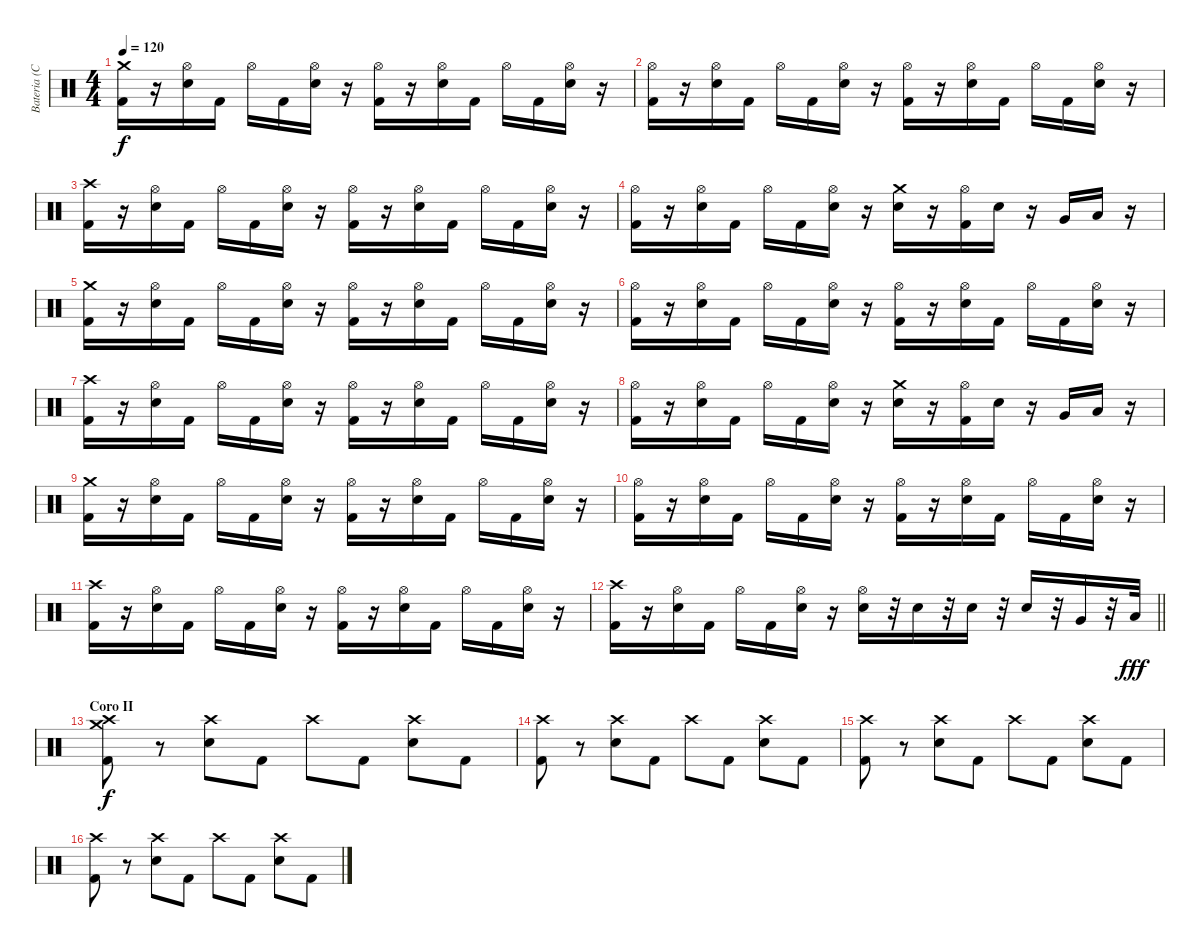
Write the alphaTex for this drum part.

\track ("Bateria (Ciro)" "Bateria (C") {instrument percussion}
\staff {score}
\articulation defaults
\ts (4 4)
\tempo 120
\clef neutral
\ks c
("Crash medium (hit)" "Kick (hit) 2").16{dy f} r.16 ("Hi-Hat (open)" "Snare (hit) 2").16 "Kick (hit) 2".16 "Hi-Hat (open)".16 "Kick (hit) 2".16 ("Hi-Hat (open)" "Snare (hit) 2").16 r.16 ("Hi-Hat (open)" "Kick (hit) 2").16 r.16 ("Hi-Hat (open)" "Snare (hit) 2").16 "Kick (hit) 2".16 "Hi-Hat (open)".16 "Kick (hit) 2".16 ("Hi-Hat (open)" "Snare (hit) 2").16 r.16 |
("Hi-Hat (open)" "Kick (hit) 2").16 r.16 ("Hi-Hat (open)" "Snare (hit) 2").16 "Kick (hit) 2".16 "Hi-Hat (open)".16 "Kick (hit) 2".16 ("Hi-Hat (open)" "Snare (hit) 2").16 r.16 ("Hi-Hat (open)" "Kick (hit) 2").16 r.16 ("Hi-Hat (open)" "Snare (hit) 2").16 "Kick (hit) 2".16 "Hi-Hat (open)".16 "Kick (hit) 2".16 ("Hi-Hat (open)" "Snare (hit) 2").16 r.16 |
("Crash high (hit)" "Kick (hit) 2").16 r.16 ("Hi-Hat (open)" "Snare (hit) 2").16 "Kick (hit) 2".16 "Hi-Hat (open)".16 "Kick (hit) 2".16 ("Hi-Hat (open)" "Snare (hit) 2").16 r.16 ("Hi-Hat (open)" "Kick (hit) 2").16 r.16 ("Hi-Hat (open)" "Snare (hit) 2").16 "Kick (hit) 2".16 "Hi-Hat (open)".16 "Kick (hit) 2".16 ("Hi-Hat (open)" "Snare (hit) 2").16 r.16 |
("Hi-Hat (open)" "Kick (hit) 2").16 r.16 ("Hi-Hat (open)" "Snare (hit) 2").16 "Kick (hit) 2".16 "Hi-Hat (open)".16 "Kick (hit) 2".16 ("Hi-Hat (open)" "Snare (hit) 2").16 r.16 ("Crash medium (hit)" "Snare (hit) 2").16 r.16 ("Hi-Hat (open)" "Kick (hit) 2").16 "Snare (hit) 2".16 r.16 "Very Low Tom (hit)".16 "Low Floor Tom (hit)".16 r.16 |
("Crash medium (hit)" "Kick (hit) 2").16 r.16 ("Hi-Hat (open)" "Snare (hit) 2").16 "Kick (hit) 2".16 "Hi-Hat (open)".16 "Kick (hit) 2".16 ("Hi-Hat (open)" "Snare (hit) 2").16 r.16 ("Hi-Hat (open)" "Kick (hit) 2").16 r.16 ("Hi-Hat (open)" "Snare (hit) 2").16 "Kick (hit) 2".16 "Hi-Hat (open)".16 "Kick (hit) 2".16 ("Hi-Hat (open)" "Snare (hit) 2").16 r.16 |
("Hi-Hat (open)" "Kick (hit) 2").16 r.16 ("Hi-Hat (open)" "Snare (hit) 2").16 "Kick (hit) 2".16 "Hi-Hat (open)".16 "Kick (hit) 2".16 ("Hi-Hat (open)" "Snare (hit) 2").16 r.16 ("Hi-Hat (open)" "Kick (hit) 2").16 r.16 ("Hi-Hat (open)" "Snare (hit) 2").16 "Kick (hit) 2".16 "Hi-Hat (open)".16 "Kick (hit) 2".16 ("Hi-Hat (open)" "Snare (hit) 2").16 r.16 |
("Crash high (hit)" "Kick (hit) 2").16 r.16 ("Hi-Hat (open)" "Snare (hit) 2").16 "Kick (hit) 2".16 "Hi-Hat (open)".16 "Kick (hit) 2".16 ("Hi-Hat (open)" "Snare (hit) 2").16 r.16 ("Hi-Hat (open)" "Kick (hit) 2").16 r.16 ("Hi-Hat (open)" "Snare (hit) 2").16 "Kick (hit) 2".16 "Hi-Hat (open)".16 "Kick (hit) 2".16 ("Hi-Hat (open)" "Snare (hit) 2").16 r.16 |
("Hi-Hat (open)" "Kick (hit) 2").16 r.16 ("Hi-Hat (open)" "Snare (hit) 2").16 "Kick (hit) 2".16 "Hi-Hat (open)".16 "Kick (hit) 2".16 ("Hi-Hat (open)" "Snare (hit) 2").16 r.16 ("Crash medium (hit)" "Snare (hit) 2").16 r.16 ("Hi-Hat (open)" "Kick (hit) 2").16 "Snare (hit) 2".16 r.16 "Very Low Tom (hit)".16 "Low Floor Tom (hit)".16 r.16 |
("Crash medium (hit)" "Kick (hit) 2").16 r.16 ("Hi-Hat (open)" "Snare (hit) 2").16 "Kick (hit) 2".16 "Hi-Hat (open)".16 "Kick (hit) 2".16 ("Hi-Hat (open)" "Snare (hit) 2").16 r.16 ("Hi-Hat (open)" "Kick (hit) 2").16 r.16 ("Hi-Hat (open)" "Snare (hit) 2").16 "Kick (hit) 2".16 "Hi-Hat (open)".16 "Kick (hit) 2".16 ("Hi-Hat (open)" "Snare (hit) 2").16 r.16 |
("Hi-Hat (open)" "Kick (hit) 2").16 r.16 ("Hi-Hat (open)" "Snare (hit) 2").16 "Kick (hit) 2".16 "Hi-Hat (open)".16 "Kick (hit) 2".16 ("Hi-Hat (open)" "Snare (hit) 2").16 r.16 ("Hi-Hat (open)" "Kick (hit) 2").16 r.16 ("Hi-Hat (open)" "Snare (hit) 2").16 "Kick (hit) 2".16 "Hi-Hat (open)".16 "Kick (hit) 2".16 ("Hi-Hat (open)" "Snare (hit) 2").16 r.16 |
("Crash high (hit)" "Kick (hit) 2").16 r.16 ("Hi-Hat (open)" "Snare (hit) 2").16 "Kick (hit) 2".16 "Hi-Hat (open)".16 "Kick (hit) 2".16 ("Hi-Hat (open)" "Snare (hit) 2").16 r.16 ("Hi-Hat (open)" "Kick (hit) 2").16 r.16 ("Hi-Hat (open)" "Snare (hit) 2").16 "Kick (hit) 2".16 "Hi-Hat (open)".16 "Kick (hit) 2".16 ("Hi-Hat (open)" "Snare (hit) 2").16 r.16 |
\barLineRight lightlight
("Crash high (hit)" "Kick (hit) 2").16 r.16 ("Hi-Hat (open)" "Snare (hit) 2").16 "Kick (hit) 2".16 "Hi-Hat (open)".16 "Kick (hit) 2".16 ("Hi-Hat (open)" "Snare (hit) 2").16 r.16 ("Hi-Hat (open)" "Snare (hit) 2").16 r.32 "Snare (hit) 2".16 r.32 "Snare (hit) 2".16 r.32 "Snare (hit) 2".16 r.32 "Very Low Tom (hit)".16 r.32 "Low Floor Tom (hit)".32{dy fff} |
\section ("" "Coro II")
("Crash medium (hit)" "Crash high (hit)" "Kick (hit) 2").8{dy f} r.8 ("Crash high (hit)" "Snare (hit) 2").8 "Kick (hit) 2".8 "Crash high (hit)".8 "Kick (hit) 2".8 ("Crash high (hit)" "Snare (hit) 2").8 "Kick (hit) 2".8 |
("Crash high (hit)" "Kick (hit) 2").8 r.8 ("Crash high (hit)" "Snare (hit) 2").8 "Kick (hit) 2".8 "Crash high (hit)".8 "Kick (hit) 2".8 ("Crash high (hit)" "Snare (hit) 2").8 "Kick (hit) 2".8 |
("Crash high (hit)" "Kick (hit) 2").8 r.8 ("Crash high (hit)" "Snare (hit) 2").8 "Kick (hit) 2".8 "Crash high (hit)".8 "Kick (hit) 2".8 ("Crash high (hit)" "Snare (hit) 2").8 "Kick (hit) 2".8 |
("Crash high (hit)" "Kick (hit) 2").8 r.8 ("Crash high (hit)" "Snare (hit) 2").8 "Kick (hit) 2".8 "Crash high (hit)".8 "Kick (hit) 2".8 ("Crash high (hit)" "Snare (hit) 2").8 "Kick (hit) 2".8
